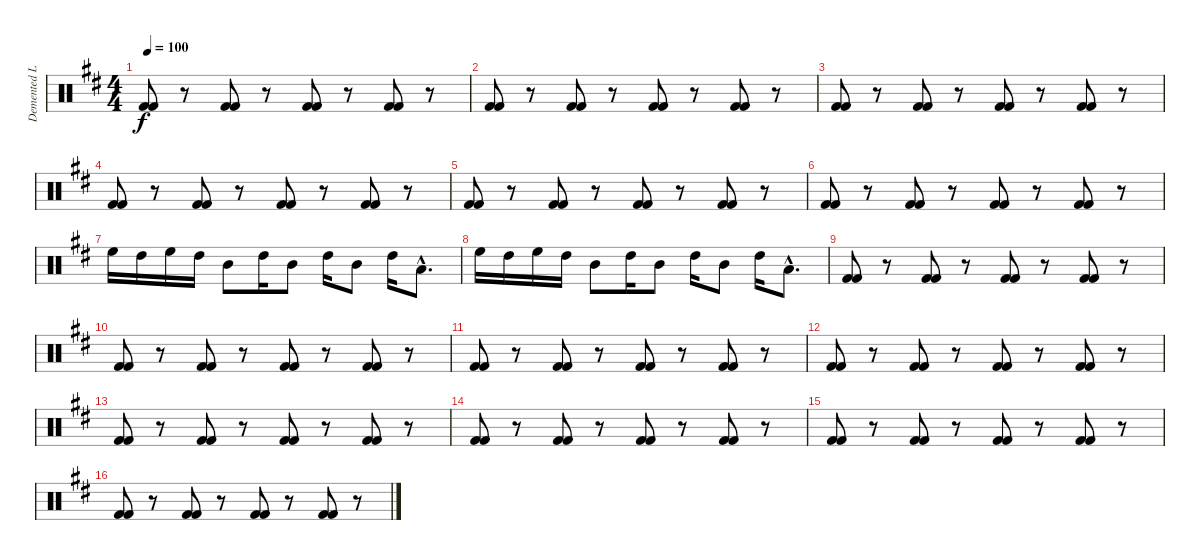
\track ("Demented Leming (Drums)" "Demented L") {instrument percussion}
\staff {score}
\articulation defaults
\ts (4 4)
\tempo 100
\clef neutral
\ks d
("Kick (hit) 2" "Kick (hit) 2").8{dy f} r.8 ("Kick (hit) 2" "Kick (hit) 2").8 r.8 ("Kick (hit) 2" "Kick (hit) 2").8 r.8 ("Kick (hit) 2" "Kick (hit) 2").8 r.8 |
("Kick (hit) 2" "Kick (hit) 2").8 r.8 ("Kick (hit) 2" "Kick (hit) 2").8 r.8 ("Kick (hit) 2" "Kick (hit) 2").8 r.8 ("Kick (hit) 2" "Kick (hit) 2").8 r.8 |
("Kick (hit) 2" "Kick (hit) 2").8 r.8 ("Kick (hit) 2" "Kick (hit) 2").8 r.8 ("Kick (hit) 2" "Kick (hit) 2").8 r.8 ("Kick (hit) 2" "Kick (hit) 2").8 r.8 |
("Kick (hit) 2" "Kick (hit) 2").8 r.8 ("Kick (hit) 2" "Kick (hit) 2").8 r.8 ("Kick (hit) 2" "Kick (hit) 2").8 r.8 ("Kick (hit) 2" "Kick (hit) 2").8 r.8 |
("Kick (hit) 2" "Kick (hit) 2").8 r.8 ("Kick (hit) 2" "Kick (hit) 2").8 r.8 ("Kick (hit) 2" "Kick (hit) 2").8 r.8 ("Kick (hit) 2" "Kick (hit) 2").8 r.8 |
("Kick (hit) 2" "Kick (hit) 2").8 r.8 ("Kick (hit) 2" "Kick (hit) 2").8 r.8 ("Kick (hit) 2" "Kick (hit) 2").8 r.8 ("Kick (hit) 2" "Kick (hit) 2").8 r.8 |
"High Floor Tom (hit)".16 "High Tom (hit)".16 "High Floor Tom (hit)".16 "High Tom (hit)".16 "Mid Tom (hit)".8 "High Tom (hit)".16 "Mid Tom (hit)".8 "High Tom (hit)".16 "Mid Tom (hit)".8 "High Tom (hit)".16 "Low Tom (hit)"{hac}.8{d} |
"High Floor Tom (hit)".16 "High Tom (hit)".16 "High Floor Tom (hit)".16 "High Tom (hit)".16 "Mid Tom (hit)".8 "High Tom (hit)".16 "Mid Tom (hit)".8 "High Tom (hit)".16 "Mid Tom (hit)".8 "High Tom (hit)".16 "Low Tom (hit)"{hac}.8{d} |
("Kick (hit) 2" "Kick (hit) 2").8 r.8 ("Kick (hit) 2" "Kick (hit) 2").8 r.8 ("Kick (hit) 2" "Kick (hit) 2").8 r.8 ("Kick (hit) 2" "Kick (hit) 2").8 r.8 |
("Kick (hit) 2" "Kick (hit) 2").8 r.8 ("Kick (hit) 2" "Kick (hit) 2").8 r.8 ("Kick (hit) 2" "Kick (hit) 2").8 r.8 ("Kick (hit) 2" "Kick (hit) 2").8 r.8 |
("Kick (hit) 2" "Kick (hit) 2").8 r.8 ("Kick (hit) 2" "Kick (hit) 2").8 r.8 ("Kick (hit) 2" "Kick (hit) 2").8 r.8 ("Kick (hit) 2" "Kick (hit) 2").8 r.8 |
("Kick (hit) 2" "Kick (hit) 2").8 r.8 ("Kick (hit) 2" "Kick (hit) 2").8 r.8 ("Kick (hit) 2" "Kick (hit) 2").8 r.8 ("Kick (hit) 2" "Kick (hit) 2").8 r.8 |
("Kick (hit) 2" "Kick (hit) 2").8 r.8 ("Kick (hit) 2" "Kick (hit) 2").8 r.8 ("Kick (hit) 2" "Kick (hit) 2").8 r.8 ("Kick (hit) 2" "Kick (hit) 2").8 r.8 |
("Kick (hit) 2" "Kick (hit) 2").8 r.8 ("Kick (hit) 2" "Kick (hit) 2").8 r.8 ("Kick (hit) 2" "Kick (hit) 2").8 r.8 ("Kick (hit) 2" "Kick (hit) 2").8 r.8 |
("Kick (hit) 2" "Kick (hit) 2").8 r.8 ("Kick (hit) 2" "Kick (hit) 2").8 r.8 ("Kick (hit) 2" "Kick (hit) 2").8 r.8 ("Kick (hit) 2" "Kick (hit) 2").8 r.8 |
("Kick (hit) 2" "Kick (hit) 2").8 r.8 ("Kick (hit) 2" "Kick (hit) 2").8 r.8 ("Kick (hit) 2" "Kick (hit) 2").8 r.8 ("Kick (hit) 2" "Kick (hit) 2").8 r.8
